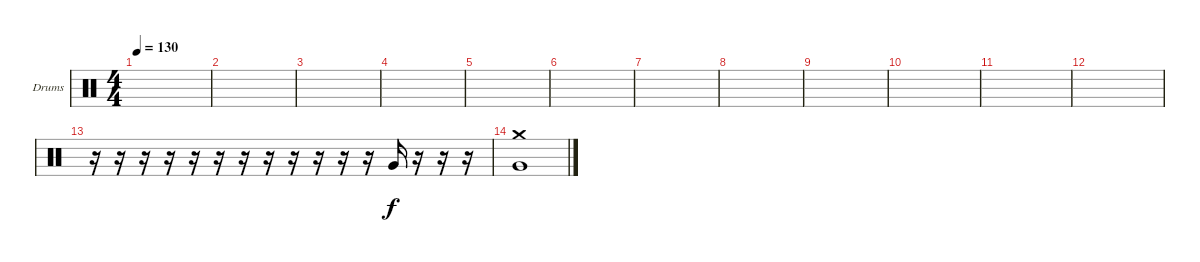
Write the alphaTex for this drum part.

\defaultSystemsLayout 4
\bracketExtendMode groupsimilarinstruments
\firstSystemTrackNameOrientation horizontal
\otherSystemsTrackNameOrientation horizontal
\track ("Drumkit" "Drums") {instrument percussion}
\staff {score}
\articulation defaults
\ts (4 4)
\tempo 130
\clef neutral
\ks c
|
\scale
0.472222 |
\scale
0.263889 |
\scale
0.263889 |
\scale
0.333333 |
\scale
0.333333 |
\scale
0.333333 |
\scale
0.333333 |
\scale
0.333333 |
\scale
0.333333 |
\scale
0.333333 |
\scale
0.333333 |
\scale
0.333333 r.16 r.16 r.16 r.16 r.16 r.16 r.16 r.16 r.16 r.16 r.16 r.16 "Very Low Tom (hit)".16 r.16 r.16 r.16 |
\scale
0.333333 ("Crash medium (hit)" "Very Low Tom (hit)").1 |
\scale
0.333333 |
\scale
0.333333
